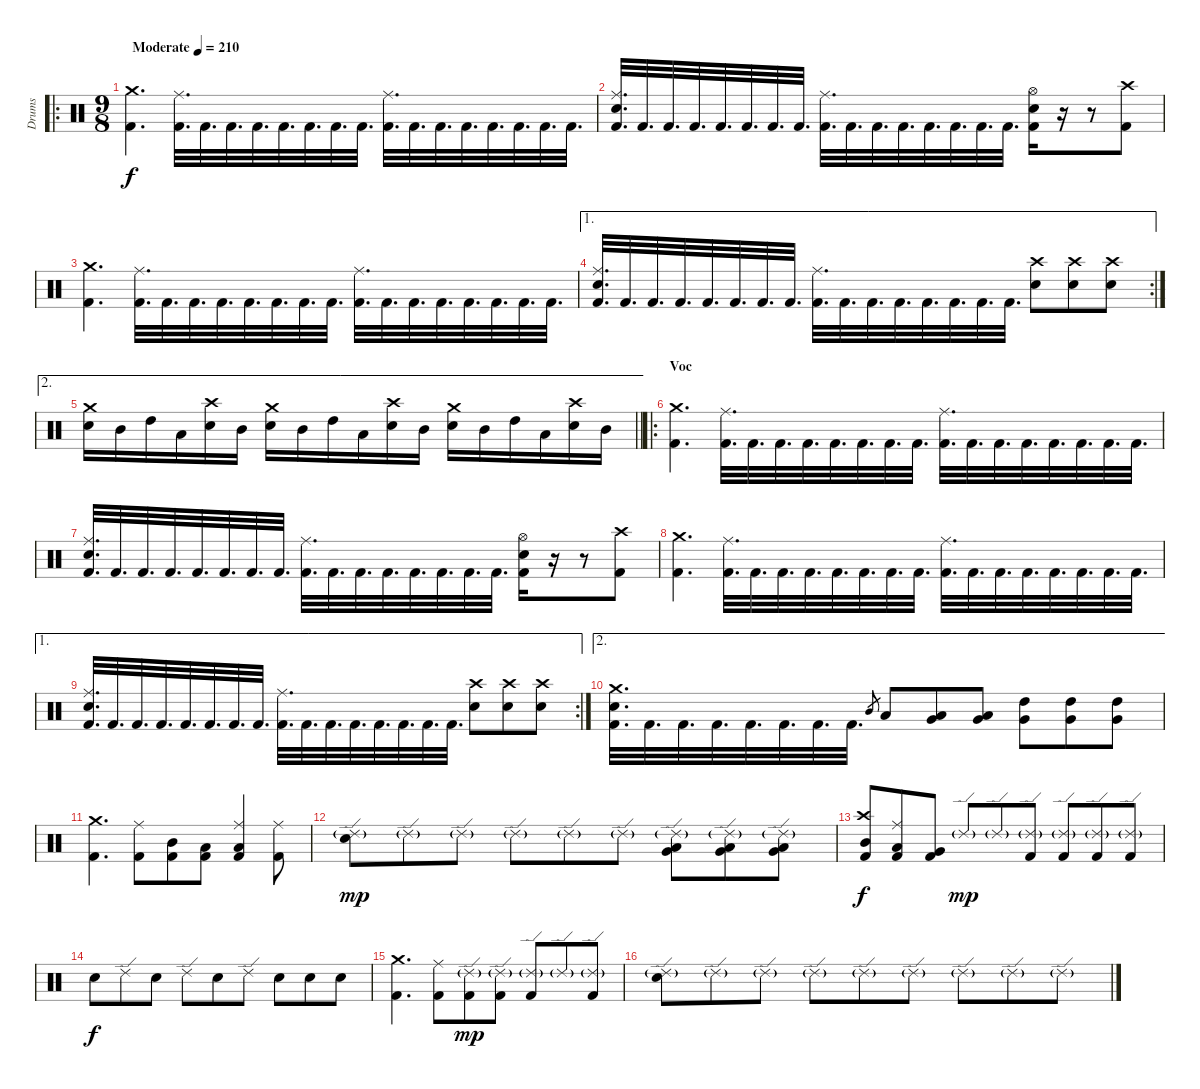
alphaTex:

\track ("Drums" "Drums") {instrument percussion}
\staff {score}
\articulation defaults
\ro
\ts (9 8)
\tempo (210 "Moderate")
\clef neutral
\ks c
("Crash medium (hit)" "Kick (hit) 2").4{d dy f} ("Ride (middle)" "Kick (hit) 2").32{d} "Kick (hit) 2".32{d} "Kick (hit) 2".32{d} "Kick (hit) 2".32{d} "Kick (hit) 2".32{d} "Kick (hit) 2".32{d} "Kick (hit) 2".32{d} "Kick (hit) 2".32{d} ("Ride (middle)" "Kick (hit) 2").32{d} "Kick (hit) 2".32{d} "Kick (hit) 2".32{d} "Kick (hit) 2".32{d} "Kick (hit) 2".32{d} "Kick (hit) 2".32{d} "Kick (hit) 2".32{d} "Kick (hit) 2".32{d} |
("Ride (middle)" "Electric Snare (hit)" "Kick (hit) 2").32{d} "Kick (hit) 2".32{d} "Kick (hit) 2".32{d} "Kick (hit) 2".32{d} "Kick (hit) 2".32{d} "Kick (hit) 2".32{d} "Kick (hit) 2".32{d} "Kick (hit) 2".32{d} ("Ride (middle)" "Kick (hit) 2").32{d} "Kick (hit) 2".32{d} "Kick (hit) 2".32{d} "Kick (hit) 2".32{d} "Kick (hit) 2".32{d} "Kick (hit) 2".32{d} "Kick (hit) 2".32{d} "Kick (hit) 2".32{d} ("Hi-Hat (open)" "Electric Snare (hit)" "Kick (hit) 2").16 r.16 r.8 ("Crash high (hit)" "Kick (hit) 2").8 |
("Crash medium (hit)" "Kick (hit) 2").4{d} ("Ride (middle)" "Kick (hit) 2").32{d} "Kick (hit) 2".32{d} "Kick (hit) 2".32{d} "Kick (hit) 2".32{d} "Kick (hit) 2".32{d} "Kick (hit) 2".32{d} "Kick (hit) 2".32{d} "Kick (hit) 2".32{d} ("Ride (middle)" "Kick (hit) 2").32{d} "Kick (hit) 2".32{d} "Kick (hit) 2".32{d} "Kick (hit) 2".32{d} "Kick (hit) 2".32{d} "Kick (hit) 2".32{d} "Kick (hit) 2".32{d} "Kick (hit) 2".32{d} |
\ae 1
\rc 2
("Ride (middle)" "Electric Snare (hit)" "Kick (hit) 2").32{d} "Kick (hit) 2".32{d} "Kick (hit) 2".32{d} "Kick (hit) 2".32{d} "Kick (hit) 2".32{d} "Kick (hit) 2".32{d} "Kick (hit) 2".32{d} "Kick (hit) 2".32{d} ("Ride (middle)" "Kick (hit) 2").32{d} "Kick (hit) 2".32{d} "Kick (hit) 2".32{d} "Kick (hit) 2".32{d} "Kick (hit) 2".32{d} "Kick (hit) 2".32{d} "Kick (hit) 2".32{d} "Kick (hit) 2".32{d} ("Crash high (hit)" "Electric Snare (hit)").8 ("Crash high (hit)" "Electric Snare (hit)").8 ("Crash high (hit)" "Electric Snare (hit)").8 |
\ae 2
\barLineRight lightlight
("Crash medium (hit)" "Electric Snare (hit)").16 "Mid Tom (hit)".16 "High Tom (hit)".16 "Low Tom (hit)".16 ("Crash high (hit)" "Electric Snare (hit)").16 "Mid Tom (hit)".16 ("Crash medium (hit)" "Electric Snare (hit)").16 "Mid Tom (hit)".16 "High Tom (hit)".16 "Low Tom (hit)".16 ("Crash high (hit)" "Electric Snare (hit)").16 "Mid Tom (hit)".16 ("Crash medium (hit)" "Electric Snare (hit)").16 "Mid Tom (hit)".16 "High Tom (hit)".16 "Low Tom (hit)".16 ("Crash high (hit)" "Electric Snare (hit)").16 "Mid Tom (hit)".16 |
\ro
\section ("" "Voc")
("Crash medium (hit)" "Kick (hit) 2").4{d} ("Ride (middle)" "Kick (hit) 2").32{d} "Kick (hit) 2".32{d} "Kick (hit) 2".32{d} "Kick (hit) 2".32{d} "Kick (hit) 2".32{d} "Kick (hit) 2".32{d} "Kick (hit) 2".32{d} "Kick (hit) 2".32{d} ("Ride (middle)" "Kick (hit) 2").32{d} "Kick (hit) 2".32{d} "Kick (hit) 2".32{d} "Kick (hit) 2".32{d} "Kick (hit) 2".32{d} "Kick (hit) 2".32{d} "Kick (hit) 2".32{d} "Kick (hit) 2".32{d} |
("Ride (middle)" "Electric Snare (hit)" "Kick (hit) 2").32{d} "Kick (hit) 2".32{d} "Kick (hit) 2".32{d} "Kick (hit) 2".32{d} "Kick (hit) 2".32{d} "Kick (hit) 2".32{d} "Kick (hit) 2".32{d} "Kick (hit) 2".32{d} ("Ride (middle)" "Kick (hit) 2").32{d} "Kick (hit) 2".32{d} "Kick (hit) 2".32{d} "Kick (hit) 2".32{d} "Kick (hit) 2".32{d} "Kick (hit) 2".32{d} "Kick (hit) 2".32{d} "Kick (hit) 2".32{d} ("Hi-Hat (open)" "Electric Snare (hit)" "Kick (hit) 2").16 r.16 r.8 ("Crash high (hit)" "Kick (hit) 2").8 |
("Crash medium (hit)" "Kick (hit) 2").4{d} ("Ride (middle)" "Kick (hit) 2").32{d} "Kick (hit) 2".32{d} "Kick (hit) 2".32{d} "Kick (hit) 2".32{d} "Kick (hit) 2".32{d} "Kick (hit) 2".32{d} "Kick (hit) 2".32{d} "Kick (hit) 2".32{d} ("Ride (middle)" "Kick (hit) 2").32{d} "Kick (hit) 2".32{d} "Kick (hit) 2".32{d} "Kick (hit) 2".32{d} "Kick (hit) 2".32{d} "Kick (hit) 2".32{d} "Kick (hit) 2".32{d} "Kick (hit) 2".32{d} |
\ae 1
\rc 2
("Ride (middle)" "Electric Snare (hit)" "Kick (hit) 2").32{d} "Kick (hit) 2".32{d} "Kick (hit) 2".32{d} "Kick (hit) 2".32{d} "Kick (hit) 2".32{d} "Kick (hit) 2".32{d} "Kick (hit) 2".32{d} "Kick (hit) 2".32{d} ("Ride (middle)" "Kick (hit) 2").32{d} "Kick (hit) 2".32{d} "Kick (hit) 2".32{d} "Kick (hit) 2".32{d} "Kick (hit) 2".32{d} "Kick (hit) 2".32{d} "Kick (hit) 2".32{d} "Kick (hit) 2".32{d} ("Crash high (hit)" "Electric Snare (hit)").8 ("Crash high (hit)" "Electric Snare (hit)").8 ("Crash high (hit)" "Electric Snare (hit)").8 |
\ae 2
("Crash medium (hit)" "Electric Snare (hit)" "Kick (hit) 2").32{d} "Kick (hit) 2".32{d} "Kick (hit) 2".32{d} "Kick (hit) 2".32{d} "Kick (hit) 2".32{d} "Kick (hit) 2".32{d} "Kick (hit) 2".32{d} "Kick (hit) 2".32{d} "Mid Tom (hit)".8{gr} "Low Tom (hit)".8 ("Low Tom (hit)" "Very Low Tom (hit)").8 ("Low Tom (hit)" "Very Low Tom (hit)").8 ("High Tom (hit)" "Very Low Tom (hit)").8 ("High Tom (hit)" "Very Low Tom (hit)").8 ("High Tom (hit)" "Very Low Tom (hit)").8 |
("Crash medium (hit)" "Kick (hit) 2").4{d} ("Ride (middle)" "Kick (hit) 2").8 ("Mid Tom (hit)" "Kick (hit) 2").8 ("Low Tom (hit)" "Kick (hit) 2").8 ("Ride (middle)" "Low Tom (hit)" "Kick (hit) 2").4 ("Ride (middle)" "Kick (hit) 2").8 |
("Ride (edge) 2"{g} "Electric Snare (hit)").8{dy mp} "Ride (edge) 2"{g}.8 "Ride (edge) 2"{g}.8 "Ride (edge) 2"{g}.8 "Ride (edge) 2"{g}.8 "Ride (edge) 2"{g}.8 ("Ride (edge) 2"{g} "Low Tom (hit)" "Very Low Tom (hit)").8 ("Ride (edge) 2"{g} "Low Tom (hit)" "Very Low Tom (hit)").8 ("Ride (edge) 2"{g} "Low Tom (hit)" "Very Low Tom (hit)").8 |
("Crash high (hit)" "Mid Tom (hit)" "Kick (hit) 2").8{dy f} ("Ride (middle)" "Low Tom (hit)" "Kick (hit) 2").8 ("Very Low Tom (hit)" "Kick (hit) 2").8 "Ride (edge) 2"{g}.8{dy mp} "Ride (edge) 2"{g}.8 ("Ride (edge) 2"{g} "Kick (hit) 2").8 ("Ride (edge) 2"{g} "Kick (hit) 2").8 ("Ride (edge) 2"{g} "Kick (hit) 2").8 ("Ride (edge) 2"{g} "Kick (hit) 2").8 |
"Electric Snare (hit)".8{dy f} "Ride (edge) 2".8 "Electric Snare (hit)".8 "Ride (edge) 2".8 "Electric Snare (hit)".8 "Ride (edge) 2".8 "Electric Snare (hit)".8 "Electric Snare (hit)".8 "Electric Snare (hit)".8 |
("Crash medium (hit)" "Kick (hit) 2").4{d} ("Ride (middle)" "Kick (hit) 2").8 ("Ride (edge) 2"{g} "Kick (hit) 2").8{dy mp} ("Ride (edge) 2"{g} "Kick (hit) 2").8 ("Ride (edge) 2"{g} "Kick (hit) 2").8 "Ride (edge) 2"{g}.8 ("Ride (edge) 2"{g} "Kick (hit) 2").8 |
("Ride (edge) 2"{g} "Electric Snare (hit)").8 "Ride (edge) 2"{g}.8 "Ride (edge) 2"{g}.8 "Ride (edge) 2"{g}.8 "Ride (edge) 2"{g}.8 "Ride (edge) 2"{g}.8 "Ride (edge) 2"{g}.8 "Ride (edge) 2"{g}.8 "Ride (edge) 2"{g}.8
